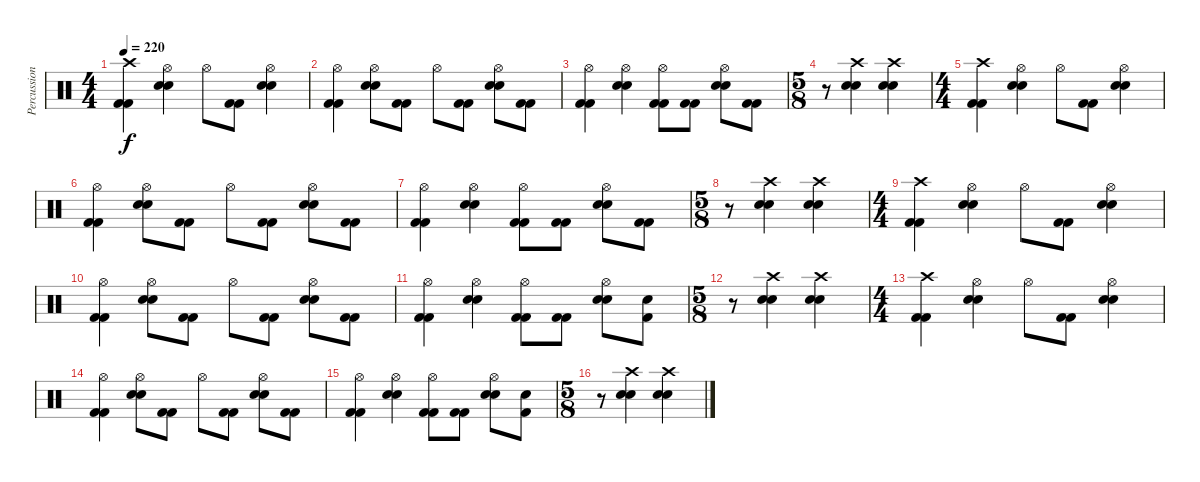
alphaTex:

\track ("Percussion" "Percussion") {instrument percussion}
\staff {score}
\articulation defaults
\ts (4 4)
\tempo 220
\clef neutral
\ks c
("Crash high (hit)" "Kick (hit) 2" "Kick (hit) 2").4{dy f} ("Hi-Hat (open)" "Electric Snare (hit)" "Electric Snare (hit)").4 "Hi-Hat (open)".8 ("Kick (hit) 2" "Kick (hit) 2").8 ("Hi-Hat (open)" "Electric Snare (hit)" "Electric Snare (hit)").4 |
("Hi-Hat (open)" "Kick (hit) 2" "Kick (hit) 2").4 ("Hi-Hat (open)" "Electric Snare (hit)" "Electric Snare (hit)").8 ("Kick (hit) 2" "Kick (hit) 2").8 "Hi-Hat (open)".8 ("Kick (hit) 2" "Kick (hit) 2").8 ("Hi-Hat (open)" "Electric Snare (hit)" "Electric Snare (hit)").8 ("Kick (hit) 2" "Kick (hit) 2").8 |
("Hi-Hat (open)" "Kick (hit) 2" "Kick (hit) 2").4 ("Hi-Hat (open)" "Electric Snare (hit)" "Electric Snare (hit)").4 ("Hi-Hat (open)" "Kick (hit) 2" "Kick (hit) 2").8 ("Kick (hit) 2" "Kick (hit) 2").8 ("Hi-Hat (open)" "Electric Snare (hit)" "Electric Snare (hit)").8 ("Kick (hit) 2" "Kick (hit) 2").8 |
\ts (5 8)
r.8 ("Crash high (hit)" "Electric Snare (hit)" "Electric Snare (hit)").4 ("Crash high (hit)" "Electric Snare (hit)" "Electric Snare (hit)").4 |
\ts (4 4)
("Crash high (hit)" "Kick (hit) 2" "Kick (hit) 2").4 ("Hi-Hat (open)" "Electric Snare (hit)" "Electric Snare (hit)").4 "Hi-Hat (open)".8 ("Kick (hit) 2" "Kick (hit) 2").8 ("Hi-Hat (open)" "Electric Snare (hit)" "Electric Snare (hit)").4 |
("Hi-Hat (open)" "Kick (hit) 2" "Kick (hit) 2").4 ("Hi-Hat (open)" "Electric Snare (hit)" "Electric Snare (hit)").8 ("Kick (hit) 2" "Kick (hit) 2").8 "Hi-Hat (open)".8 ("Kick (hit) 2" "Kick (hit) 2").8 ("Hi-Hat (open)" "Electric Snare (hit)" "Electric Snare (hit)").8 ("Kick (hit) 2" "Kick (hit) 2").8 |
("Hi-Hat (open)" "Kick (hit) 2" "Kick (hit) 2").4 ("Hi-Hat (open)" "Electric Snare (hit)" "Electric Snare (hit)").4 ("Hi-Hat (open)" "Kick (hit) 2" "Kick (hit) 2").8 ("Kick (hit) 2" "Kick (hit) 2").8 ("Hi-Hat (open)" "Electric Snare (hit)" "Electric Snare (hit)").8 ("Kick (hit) 2" "Kick (hit) 2").8 |
\ts (5 8)
r.8 ("Crash high (hit)" "Electric Snare (hit)" "Electric Snare (hit)").4 ("Crash high (hit)" "Electric Snare (hit)" "Electric Snare (hit)").4 |
\ts (4 4)
("Crash high (hit)" "Kick (hit) 2" "Kick (hit) 2").4 ("Hi-Hat (open)" "Electric Snare (hit)" "Electric Snare (hit)").4 "Hi-Hat (open)".8 ("Kick (hit) 2" "Kick (hit) 2").8 ("Hi-Hat (open)" "Electric Snare (hit)" "Electric Snare (hit)").4 |
("Hi-Hat (open)" "Kick (hit) 2" "Kick (hit) 2").4 ("Hi-Hat (open)" "Electric Snare (hit)" "Electric Snare (hit)").8 ("Kick (hit) 2" "Kick (hit) 2").8 "Hi-Hat (open)".8 ("Kick (hit) 2" "Kick (hit) 2").8 ("Hi-Hat (open)" "Electric Snare (hit)" "Electric Snare (hit)").8 ("Kick (hit) 2" "Kick (hit) 2").8 |
("Hi-Hat (open)" "Kick (hit) 2" "Kick (hit) 2").4 ("Hi-Hat (open)" "Electric Snare (hit)" "Electric Snare (hit)").4 ("Hi-Hat (open)" "Kick (hit) 2" "Kick (hit) 2").8 ("Kick (hit) 2" "Kick (hit) 2").8 ("Hi-Hat (open)" "Electric Snare (hit)" "Electric Snare (hit)").8 ("Kick (hit) 2" "Snare (hit)").8 |
\ts (5 8)
r.8 ("Crash high (hit)" "Electric Snare (hit)" "Electric Snare (hit)").4 ("Crash high (hit)" "Electric Snare (hit)" "Electric Snare (hit)").4 |
\ts (4 4)
("Crash high (hit)" "Kick (hit) 2" "Kick (hit) 2").4 ("Hi-Hat (open)" "Electric Snare (hit)" "Electric Snare (hit)").4 "Hi-Hat (open)".8 ("Kick (hit) 2" "Kick (hit) 2").8 ("Hi-Hat (open)" "Electric Snare (hit)" "Electric Snare (hit)").4 |
("Hi-Hat (open)" "Kick (hit) 2" "Kick (hit) 2").4 ("Hi-Hat (open)" "Electric Snare (hit)" "Electric Snare (hit)").8 ("Kick (hit) 2" "Kick (hit) 2").8 "Hi-Hat (open)".8 ("Kick (hit) 2" "Kick (hit) 2").8 ("Hi-Hat (open)" "Electric Snare (hit)" "Electric Snare (hit)").8 ("Kick (hit) 2" "Kick (hit) 2").8 |
("Hi-Hat (open)" "Kick (hit) 2" "Kick (hit) 2").4 ("Hi-Hat (open)" "Electric Snare (hit)" "Electric Snare (hit)").4 ("Hi-Hat (open)" "Kick (hit) 2" "Kick (hit) 2").8 ("Kick (hit) 2" "Kick (hit) 2").8 ("Hi-Hat (open)" "Electric Snare (hit)" "Electric Snare (hit)").8 ("Kick (hit) 2" "Snare (hit)").8 |
\ts (5 8)
r.8 ("Crash high (hit)" "Electric Snare (hit)" "Electric Snare (hit)").4 ("Crash high (hit)" "Electric Snare (hit)" "Electric Snare (hit)").4
